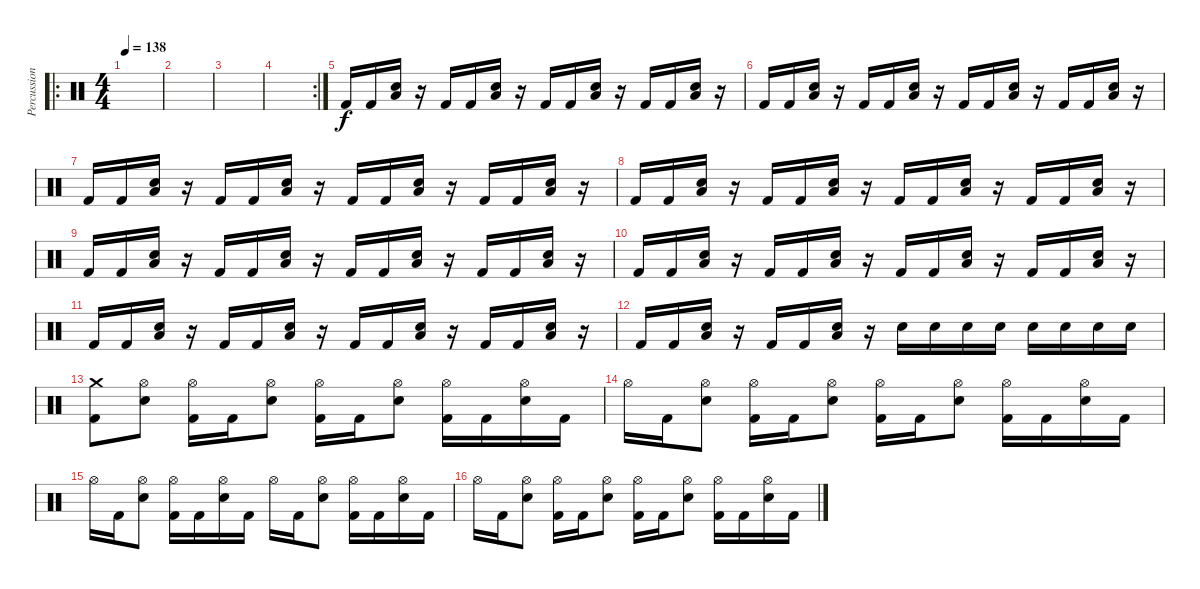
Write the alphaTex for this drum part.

\track ("Percussion" "Percussion") {instrument percussion}
\staff {score}
\articulation defaults
\ro
\ts (4 4)
\tempo 138
\clef neutral
\ks c
|
|
|
\rc 2
|
"Kick (hit) 2".16 "Kick (hit) 2".16 ("Snare (hit) 2" "Low Floor Tom (hit)").16 r.16 "Kick (hit) 2".16 "Kick (hit) 2".16 ("Snare (hit) 2" "Low Floor Tom (hit)").16 r.16 "Kick (hit) 2".16 "Kick (hit) 2".16 ("Snare (hit) 2" "Low Floor Tom (hit)").16 r.16 "Kick (hit) 2".16 "Kick (hit) 2".16 ("Snare (hit) 2" "Low Floor Tom (hit)").16 r.16 |
"Kick (hit) 2".16 "Kick (hit) 2".16 ("Snare (hit) 2" "Low Floor Tom (hit)").16 r.16 "Kick (hit) 2".16 "Kick (hit) 2".16 ("Snare (hit) 2" "Low Floor Tom (hit)").16 r.16 "Kick (hit) 2".16 "Kick (hit) 2".16 ("Snare (hit) 2" "Low Floor Tom (hit)").16 r.16 "Kick (hit) 2".16 "Kick (hit) 2".16 ("Snare (hit) 2" "Low Floor Tom (hit)").16 r.16 |
"Kick (hit) 2".16 "Kick (hit) 2".16 ("Snare (hit) 2" "Low Floor Tom (hit)").16 r.16 "Kick (hit) 2".16 "Kick (hit) 2".16 ("Snare (hit) 2" "Low Floor Tom (hit)").16 r.16 "Kick (hit) 2".16 "Kick (hit) 2".16 ("Snare (hit) 2" "Low Floor Tom (hit)").16 r.16 "Kick (hit) 2".16 "Kick (hit) 2".16 ("Snare (hit) 2" "Low Floor Tom (hit)").16 r.16 |
"Kick (hit) 2".16 "Kick (hit) 2".16 ("Snare (hit) 2" "Low Floor Tom (hit)").16 r.16 "Kick (hit) 2".16 "Kick (hit) 2".16 ("Snare (hit) 2" "Low Floor Tom (hit)").16 r.16 "Kick (hit) 2".16 "Kick (hit) 2".16 ("Snare (hit) 2" "Low Floor Tom (hit)").16 r.16 "Kick (hit) 2".16 "Kick (hit) 2".16 ("Snare (hit) 2" "Low Floor Tom (hit)").16 r.16 |
"Kick (hit) 2".16 "Kick (hit) 2".16 ("Snare (hit) 2" "Low Floor Tom (hit)").16 r.16 "Kick (hit) 2".16 "Kick (hit) 2".16 ("Snare (hit) 2" "Low Floor Tom (hit)").16 r.16 "Kick (hit) 2".16 "Kick (hit) 2".16 ("Snare (hit) 2" "Low Floor Tom (hit)").16 r.16 "Kick (hit) 2".16 "Kick (hit) 2".16 ("Snare (hit) 2" "Low Floor Tom (hit)").16 r.16 |
"Kick (hit) 2".16 "Kick (hit) 2".16 ("Snare (hit) 2" "Low Floor Tom (hit)").16 r.16 "Kick (hit) 2".16 "Kick (hit) 2".16 ("Snare (hit) 2" "Low Floor Tom (hit)").16 r.16 "Kick (hit) 2".16 "Kick (hit) 2".16 ("Snare (hit) 2" "Low Floor Tom (hit)").16 r.16 "Kick (hit) 2".16 "Kick (hit) 2".16 ("Snare (hit) 2" "Low Floor Tom (hit)").16 r.16 |
"Kick (hit) 2".16 "Kick (hit) 2".16 ("Snare (hit) 2" "Low Floor Tom (hit)").16 r.16 "Kick (hit) 2".16 "Kick (hit) 2".16 ("Snare (hit) 2" "Low Floor Tom (hit)").16 r.16 "Kick (hit) 2".16 "Kick (hit) 2".16 ("Snare (hit) 2" "Low Floor Tom (hit)").16 r.16 "Kick (hit) 2".16 "Kick (hit) 2".16 ("Snare (hit) 2" "Low Floor Tom (hit)").16 r.16 |
"Kick (hit) 2".16 "Kick (hit) 2".16 ("Snare (hit) 2" "Low Floor Tom (hit)").16 r.16 "Kick (hit) 2".16 "Kick (hit) 2".16 ("Snare (hit) 2" "Low Floor Tom (hit)").16 r.16 "Snare (hit) 2".16 "Snare (hit) 2".16 "Snare (hit) 2".16 "Snare (hit) 2".16 "Snare (hit) 2".16 "Snare (hit) 2".16 "Snare (hit) 2".16 "Snare (hit) 2".16 |
("Crash medium (hit)" "Kick (hit) 2").8 ("Hi-Hat (open)" "Snare (hit) 2").8 ("Hi-Hat (open)" "Kick (hit) 2").16 "Kick (hit) 2".16 ("Hi-Hat (open)" "Snare (hit) 2").8 ("Hi-Hat (open)" "Kick (hit) 2").16 "Kick (hit) 2".16 ("Hi-Hat (open)" "Snare (hit) 2").8 ("Hi-Hat (open)" "Kick (hit) 2").16 "Kick (hit) 2".16 ("Hi-Hat (open)" "Snare (hit) 2").16 "Kick (hit) 2".16 |
"Hi-Hat (open)".16 "Kick (hit) 2".16 ("Hi-Hat (open)" "Snare (hit) 2").8 ("Hi-Hat (open)" "Kick (hit) 2").16 "Kick (hit) 2".16 ("Hi-Hat (open)" "Snare (hit) 2").8 ("Hi-Hat (open)" "Kick (hit) 2").16 "Kick (hit) 2".16 ("Hi-Hat (open)" "Snare (hit) 2").8 ("Hi-Hat (open)" "Kick (hit) 2").16 "Kick (hit) 2".16 ("Hi-Hat (open)" "Snare (hit) 2").16 "Kick (hit) 2".16 |
"Hi-Hat (open)".16 "Kick (hit) 2".16 ("Hi-Hat (open)" "Snare (hit) 2").8 ("Hi-Hat (open)" "Kick (hit) 2").16 "Kick (hit) 2".16 ("Hi-Hat (open)" "Snare (hit) 2").16 "Kick (hit) 2".16 "Hi-Hat (open)".16 "Kick (hit) 2".16 ("Hi-Hat (open)" "Snare (hit) 2").8 ("Hi-Hat (open)" "Kick (hit) 2").16 "Kick (hit) 2".16 ("Hi-Hat (open)" "Snare (hit) 2").16 "Kick (hit) 2".16 |
"Hi-Hat (open)".16 "Kick (hit) 2".16 ("Hi-Hat (open)" "Snare (hit) 2").8 ("Hi-Hat (open)" "Kick (hit) 2").16 "Kick (hit) 2".16 ("Hi-Hat (open)" "Snare (hit) 2").8 ("Hi-Hat (open)" "Kick (hit) 2").16 "Kick (hit) 2".16 ("Hi-Hat (open)" "Snare (hit) 2").8 ("Hi-Hat (open)" "Kick (hit) 2").16 "Kick (hit) 2".16 ("Hi-Hat (open)" "Snare (hit) 2").16 "Kick (hit) 2".16
